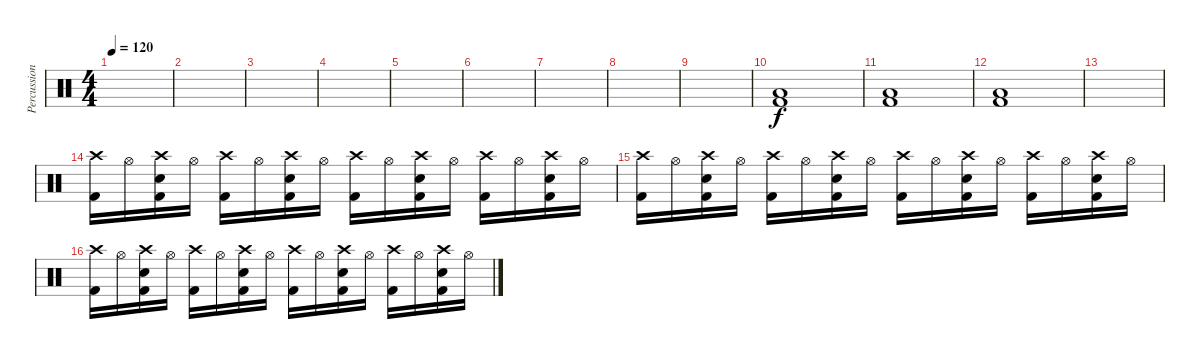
\track ("Percussion" "Percussion") {instrument percussion}
\staff {score}
\articulation defaults
\ts (4 4)
\tempo 120
\clef neutral
\ks c
|
|
|
|
|
|
|
|
|
("Low Tom (hit)" "Kick (hit) 2").1 |
("Low Tom (hit)" "Kick (hit) 2").1 |
("Low Tom (hit)" "Kick (hit) 2").1 |
|
("Crash high (hit)" "Kick (hit) 2").16 "Hi-Hat (open)".16 ("Crash high (hit)" "Electric Snare (hit)" "Kick (hit) 2").16 "Hi-Hat (open)".16 ("Crash high (hit)" "Kick (hit) 2").16 "Hi-Hat (open)".16 ("Crash high (hit)" "Electric Snare (hit)" "Kick (hit) 2").16 "Hi-Hat (open)".16 ("Crash high (hit)" "Kick (hit) 2").16 "Hi-Hat (open)".16 ("Crash high (hit)" "Electric Snare (hit)" "Kick (hit) 2").16 "Hi-Hat (open)".16 ("Crash high (hit)" "Kick (hit) 2").16 "Hi-Hat (open)".16 ("Crash high (hit)" "Electric Snare (hit)" "Kick (hit) 2").16 "Hi-Hat (open)".16 |
("Crash high (hit)" "Kick (hit) 2").16 "Hi-Hat (open)".16 ("Crash high (hit)" "Electric Snare (hit)" "Kick (hit) 2").16 "Hi-Hat (open)".16 ("Crash high (hit)" "Kick (hit) 2").16 "Hi-Hat (open)".16 ("Crash high (hit)" "Electric Snare (hit)" "Kick (hit) 2").16 "Hi-Hat (open)".16 ("Crash high (hit)" "Kick (hit) 2").16 "Hi-Hat (open)".16 ("Crash high (hit)" "Electric Snare (hit)" "Kick (hit) 2").16 "Hi-Hat (open)".16 ("Crash high (hit)" "Kick (hit) 2").16 "Hi-Hat (open)".16 ("Crash high (hit)" "Electric Snare (hit)" "Kick (hit) 2").16 "Hi-Hat (open)".16 |
("Crash high (hit)" "Kick (hit) 2").16 "Hi-Hat (open)".16 ("Crash high (hit)" "Electric Snare (hit)" "Kick (hit) 2").16 "Hi-Hat (open)".16 ("Crash high (hit)" "Kick (hit) 2").16 "Hi-Hat (open)".16 ("Crash high (hit)" "Electric Snare (hit)" "Kick (hit) 2").16 "Hi-Hat (open)".16 ("Crash high (hit)" "Kick (hit) 2").16 "Hi-Hat (open)".16 ("Crash high (hit)" "Electric Snare (hit)" "Kick (hit) 2").16 "Hi-Hat (open)".16 ("Crash high (hit)" "Kick (hit) 2").16 "Hi-Hat (open)".16 ("Crash high (hit)" "Electric Snare (hit)" "Kick (hit) 2").16 "Hi-Hat (open)".16
